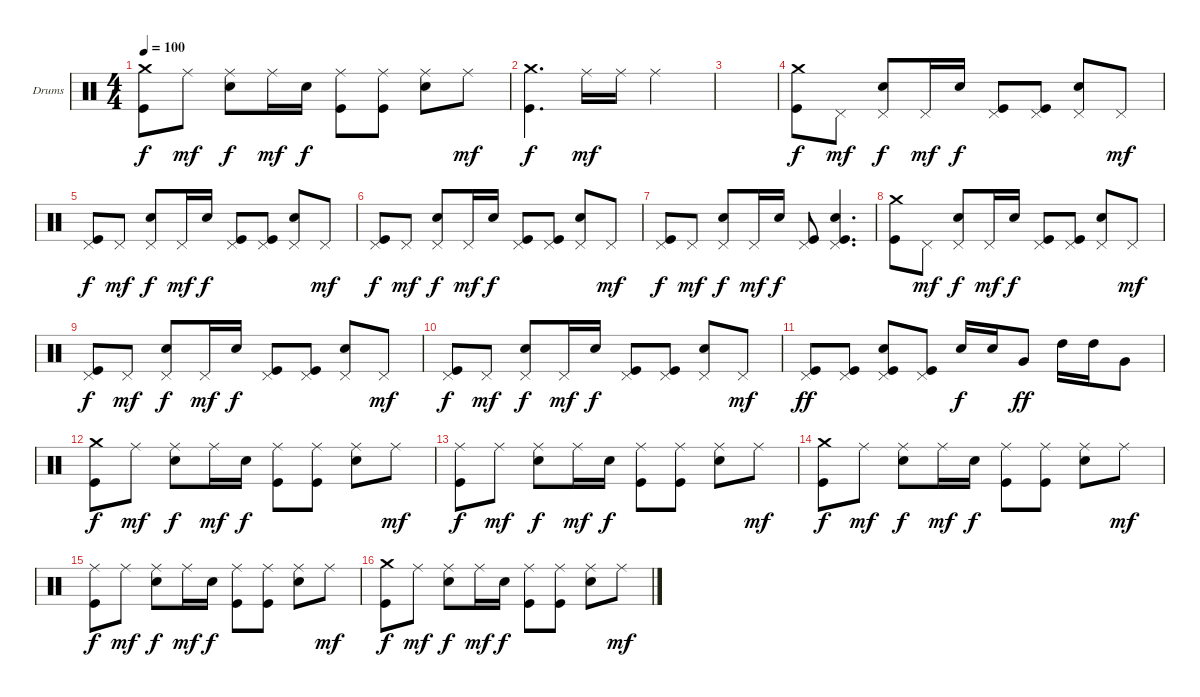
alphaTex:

\defaultSystemsLayout 4
\bracketExtendMode groupsimilarinstruments
\firstSystemTrackNameOrientation horizontal
\otherSystemsTrackNameOrientation horizontal
\track ("Drums" "Drums") {instrument percussion}
\staff {score}
\articulation defaults
\ts (4 4)
\tempo 100
\clef neutral
\ks c
("Kick (hit)" "Crash medium (hit)").8{dy f} "Ride (middle)".8{dy mf} ("Snare (hit) 2" "Ride (middle)").8{dy f} "Ride (middle)".16{dy mf} "Snare (hit) 2".16{dy f} ("Kick (hit)" "Ride (middle)").8 ("Kick (hit)" "Ride (middle)").8 ("Snare (hit) 2" "Ride (middle)").8 "Ride (middle)".8{dy mf} |
("Kick (hit)" "Crash medium (hit)").4{d dy f} "Ride (middle)".16{dy mf} "Ride (middle)".16 "Ride (middle)".2 |
|
("Kick (hit)" "Crash medium (hit)").8{dy f} "Pedal Hi-Hat (hit)".8{dy mf} ("Snare (hit) 2" "Pedal Hi-Hat (hit)").8{dy f} "Pedal Hi-Hat (hit)".16{dy mf} "Snare (hit) 2".16{dy f} ("Kick (hit)" "Pedal Hi-Hat (hit)").8 ("Kick (hit)" "Pedal Hi-Hat (hit)").8 ("Snare (hit) 2" "Pedal Hi-Hat (hit)").8 "Pedal Hi-Hat (hit)".8{dy mf} |
("Kick (hit)" "Pedal Hi-Hat (hit)").8{dy f} "Pedal Hi-Hat (hit)".8{dy mf} ("Snare (hit) 2" "Pedal Hi-Hat (hit)").8{dy f} "Pedal Hi-Hat (hit)".16{dy mf} "Snare (hit) 2".16{dy f} ("Kick (hit)" "Pedal Hi-Hat (hit)").8 ("Kick (hit)" "Pedal Hi-Hat (hit)").8 ("Snare (hit) 2" "Pedal Hi-Hat (hit)").8 "Pedal Hi-Hat (hit)".8{dy mf} |
("Kick (hit)" "Pedal Hi-Hat (hit)").8{dy f} "Pedal Hi-Hat (hit)".8{dy mf} ("Snare (hit) 2" "Pedal Hi-Hat (hit)").8{dy f} "Pedal Hi-Hat (hit)".16{dy mf} "Snare (hit) 2".16{dy f} ("Kick (hit)" "Pedal Hi-Hat (hit)").8 ("Kick (hit)" "Pedal Hi-Hat (hit)").8 ("Snare (hit) 2" "Pedal Hi-Hat (hit)").8 "Pedal Hi-Hat (hit)".8{dy mf} |
("Kick (hit)" "Pedal Hi-Hat (hit)").8{dy f} "Pedal Hi-Hat (hit)".8{dy mf} ("Snare (hit) 2" "Pedal Hi-Hat (hit)").8{dy f} "Pedal Hi-Hat (hit)".16{dy mf} "Snare (hit) 2".16{dy f} ("Kick (hit)" "Pedal Hi-Hat (hit)").8 ("Kick (hit)" "Snare (hit) 2" "Pedal Hi-Hat (hit)").4{d} |
("Kick (hit)" "Crash medium (hit)").8 "Pedal Hi-Hat (hit)".8{dy mf} ("Snare (hit) 2" "Pedal Hi-Hat (hit)").8{dy f} "Pedal Hi-Hat (hit)".16{dy mf} "Snare (hit) 2".16{dy f} ("Kick (hit)" "Pedal Hi-Hat (hit)").8 ("Kick (hit)" "Pedal Hi-Hat (hit)").8 ("Snare (hit) 2" "Pedal Hi-Hat (hit)").8 "Pedal Hi-Hat (hit)".8{dy mf} |
("Kick (hit)" "Pedal Hi-Hat (hit)").8{dy f} "Pedal Hi-Hat (hit)".8{dy mf} ("Snare (hit) 2" "Pedal Hi-Hat (hit)").8{dy f} "Pedal Hi-Hat (hit)".16{dy mf} "Snare (hit) 2".16{dy f} ("Kick (hit)" "Pedal Hi-Hat (hit)").8 ("Kick (hit)" "Pedal Hi-Hat (hit)").8 ("Snare (hit) 2" "Pedal Hi-Hat (hit)").8 "Pedal Hi-Hat (hit)".8{dy mf} |
("Kick (hit)" "Pedal Hi-Hat (hit)").8{dy f} "Pedal Hi-Hat (hit)".8{dy mf} ("Snare (hit) 2" "Pedal Hi-Hat (hit)").8{dy f} "Pedal Hi-Hat (hit)".16{dy mf} "Snare (hit) 2".16{dy f} ("Kick (hit)" "Pedal Hi-Hat (hit)").8 ("Kick (hit)" "Pedal Hi-Hat (hit)").8 ("Snare (hit) 2" "Pedal Hi-Hat (hit)").8 "Pedal Hi-Hat (hit)".8{dy mf} |
("Kick (hit)" "Pedal Hi-Hat (hit)").8{dy ff} ("Kick (hit)" "Pedal Hi-Hat (hit)").8 ("Kick (hit)" "Snare (hit) 2" "Pedal Hi-Hat (hit)").8 ("Kick (hit)" "Pedal Hi-Hat (hit)").8 "Snare (hit) 2".16{dy f} "Snare (hit) 2".16 "Very Low Tom (hit)".8{dy ff} "High Tom (hit)".16 "High Tom (hit)".16 "Very Low Tom (hit)".8 |
("Kick (hit)" "Crash medium (hit)").8{dy f} "Ride (middle)".8{dy mf} ("Snare (hit) 2" "Ride (middle)").8{dy f} "Ride (middle)".16{dy mf} "Snare (hit) 2".16{dy f} ("Kick (hit)" "Ride (middle)").8 ("Kick (hit)" "Ride (middle)").8 ("Snare (hit) 2" "Ride (middle)").8 "Ride (middle)".8{dy mf} |
("Kick (hit)" "Ride (middle)").8{dy f} "Ride (middle)".8{dy mf} ("Snare (hit) 2" "Ride (middle)").8{dy f} "Ride (middle)".16{dy mf} "Snare (hit) 2".16{dy f} ("Kick (hit)" "Ride (middle)").8 ("Kick (hit)" "Ride (middle)").8 ("Snare (hit) 2" "Ride (middle)").8 "Ride (middle)".8{dy mf} |
("Kick (hit)" "Crash medium (hit)").8{dy f} "Ride (middle)".8{dy mf} ("Snare (hit) 2" "Ride (middle)").8{dy f} "Ride (middle)".16{dy mf} "Snare (hit) 2".16{dy f} ("Kick (hit)" "Ride (middle)").8 ("Kick (hit)" "Ride (middle)").8 ("Snare (hit) 2" "Ride (middle)").8 "Ride (middle)".8{dy mf} |
("Kick (hit)" "Ride (middle)").8{dy f} "Ride (middle)".8{dy mf} ("Snare (hit) 2" "Ride (middle)").8{dy f} "Ride (middle)".16{dy mf} "Snare (hit) 2".16{dy f} ("Kick (hit)" "Ride (middle)").8 ("Kick (hit)" "Ride (middle)").8 ("Snare (hit) 2" "Ride (middle)").8 "Ride (middle)".8{dy mf} |
("Kick (hit)" "Crash medium (hit)").8{dy f} "Ride (middle)".8{dy mf} ("Snare (hit) 2" "Ride (middle)").8{dy f} "Ride (middle)".16{dy mf} "Snare (hit) 2".16{dy f} ("Kick (hit)" "Ride (middle)").8 ("Kick (hit)" "Ride (middle)").8 ("Snare (hit) 2" "Ride (middle)").8 "Ride (middle)".8{dy mf}
